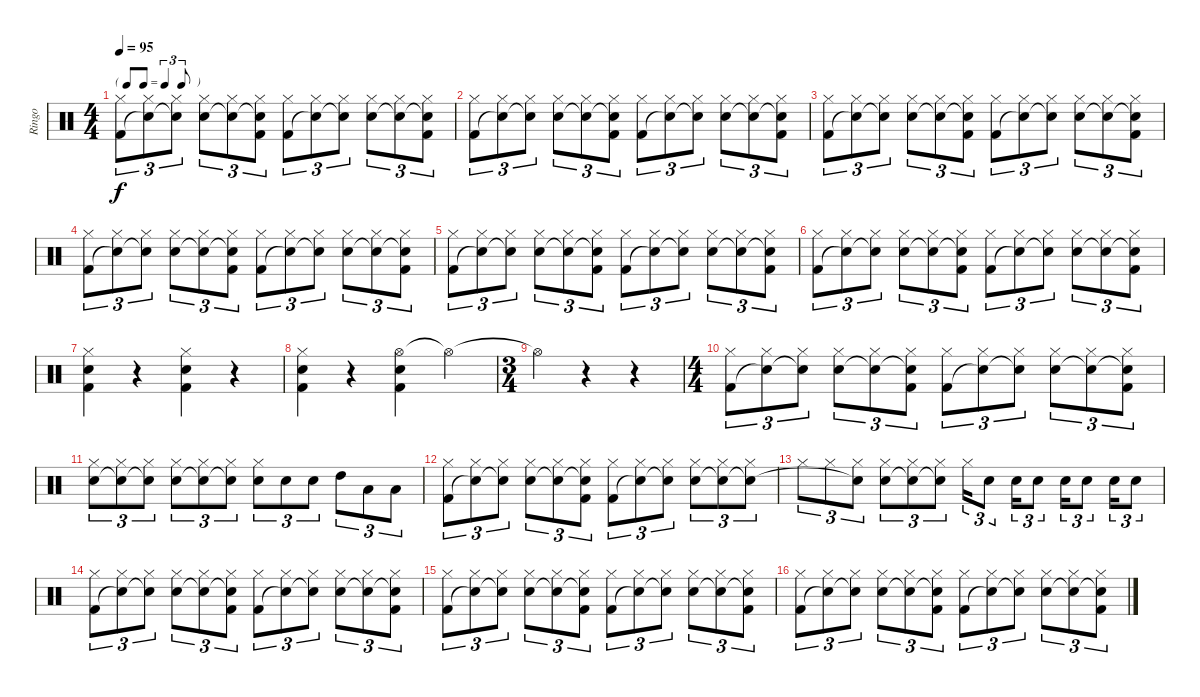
\track ("Ringo" "Ringo") {instrument percussion}
\staff {score}
\articulation defaults
\ts (4 4)
\tf triplet8th
\tempo 95
\clef neutral
\ks c
("Hi-Hat (closed)" "Kick (hit) 2").8{tu (3 2) dy f} ("Hi-Hat (closed)" "Snare (hit)"{t}).8{tu (3 2)} ("Hi-Hat (closed)" "Snare (hit)"{t}).8{tu (3 2)} ("Hi-Hat (closed)" "Snare (hit) 2").8{tu (3 2)} ("Hi-Hat (closed)" "Snare (hit)"{t}).8{tu (3 2)} ("Hi-Hat (closed)" "Snare (hit)"{t} "Kick (hit) 2").8{tu (3 2)} ("Hi-Hat (closed)" "Kick (hit) 2").8{tu (3 2)} ("Hi-Hat (closed)" "Snare (hit)"{t}).8{tu (3 2)} ("Hi-Hat (closed)" "Snare (hit)"{t}).8{tu (3 2)} ("Hi-Hat (closed)" "Snare (hit) 2").8{tu (3 2)} ("Hi-Hat (closed)" "Snare (hit)"{t}).8{tu (3 2)} ("Hi-Hat (closed)" "Snare (hit)"{t} "Kick (hit) 2").8{tu (3 2)} |
("Hi-Hat (closed)" "Kick (hit) 2").8{tu (3 2)} ("Hi-Hat (closed)" "Snare (hit)"{t}).8{tu (3 2)} ("Hi-Hat (closed)" "Snare (hit)"{t}).8{tu (3 2)} ("Hi-Hat (closed)" "Snare (hit) 2").8{tu (3 2)} ("Hi-Hat (closed)" "Snare (hit)"{t}).8{tu (3 2)} ("Hi-Hat (closed)" "Snare (hit)"{t} "Kick (hit) 2").8{tu (3 2)} ("Hi-Hat (closed)" "Kick (hit) 2").8{tu (3 2)} ("Hi-Hat (closed)" "Snare (hit)"{t}).8{tu (3 2)} ("Hi-Hat (closed)" "Snare (hit)"{t}).8{tu (3 2)} ("Hi-Hat (closed)" "Snare (hit) 2").8{tu (3 2)} ("Hi-Hat (closed)" "Snare (hit)"{t}).8{tu (3 2)} ("Hi-Hat (closed)" "Snare (hit)"{t} "Kick (hit) 2").8{tu (3 2)} |
("Hi-Hat (closed)" "Kick (hit) 2").8{tu (3 2)} ("Hi-Hat (closed)" "Snare (hit)"{t}).8{tu (3 2)} ("Hi-Hat (closed)" "Snare (hit)"{t}).8{tu (3 2)} ("Hi-Hat (closed)" "Snare (hit) 2").8{tu (3 2)} ("Hi-Hat (closed)" "Snare (hit)"{t}).8{tu (3 2)} ("Hi-Hat (closed)" "Snare (hit)"{t} "Kick (hit) 2").8{tu (3 2)} ("Hi-Hat (closed)" "Kick (hit) 2").8{tu (3 2)} ("Hi-Hat (closed)" "Snare (hit)"{t}).8{tu (3 2)} ("Hi-Hat (closed)" "Snare (hit)"{t}).8{tu (3 2)} ("Hi-Hat (closed)" "Snare (hit) 2").8{tu (3 2)} ("Hi-Hat (closed)" "Snare (hit)"{t}).8{tu (3 2)} ("Hi-Hat (closed)" "Snare (hit)"{t} "Kick (hit) 2").8{tu (3 2)} |
("Hi-Hat (closed)" "Kick (hit) 2").8{tu (3 2)} ("Hi-Hat (closed)" "Snare (hit)"{t}).8{tu (3 2)} ("Hi-Hat (closed)" "Snare (hit)"{t}).8{tu (3 2)} ("Hi-Hat (closed)" "Snare (hit) 2").8{tu (3 2)} ("Hi-Hat (closed)" "Snare (hit)"{t}).8{tu (3 2)} ("Hi-Hat (closed)" "Snare (hit)"{t} "Kick (hit) 2").8{tu (3 2)} ("Hi-Hat (closed)" "Kick (hit) 2").8{tu (3 2)} ("Hi-Hat (closed)" "Snare (hit)"{t}).8{tu (3 2)} ("Hi-Hat (closed)" "Snare (hit)"{t}).8{tu (3 2)} ("Hi-Hat (closed)" "Snare (hit) 2").8{tu (3 2)} ("Hi-Hat (closed)" "Snare (hit)"{t}).8{tu (3 2)} ("Hi-Hat (closed)" "Snare (hit)"{t} "Kick (hit) 2").8{tu (3 2)} |
("Hi-Hat (closed)" "Kick (hit) 2").8{tu (3 2)} ("Hi-Hat (closed)" "Snare (hit)"{t}).8{tu (3 2)} ("Hi-Hat (closed)" "Snare (hit)"{t}).8{tu (3 2)} ("Hi-Hat (closed)" "Snare (hit) 2").8{tu (3 2)} ("Hi-Hat (closed)" "Snare (hit)"{t}).8{tu (3 2)} ("Hi-Hat (closed)" "Snare (hit)"{t} "Kick (hit) 2").8{tu (3 2)} ("Hi-Hat (closed)" "Kick (hit) 2").8{tu (3 2)} ("Hi-Hat (closed)" "Snare (hit)"{t}).8{tu (3 2)} ("Hi-Hat (closed)" "Snare (hit)"{t}).8{tu (3 2)} ("Hi-Hat (closed)" "Snare (hit) 2").8{tu (3 2)} ("Hi-Hat (closed)" "Snare (hit)"{t}).8{tu (3 2)} ("Hi-Hat (closed)" "Snare (hit)"{t} "Kick (hit) 2").8{tu (3 2)} |
("Hi-Hat (closed)" "Kick (hit) 2").8{tu (3 2)} ("Hi-Hat (closed)" "Snare (hit)"{t}).8{tu (3 2)} ("Hi-Hat (closed)" "Snare (hit)"{t}).8{tu (3 2)} ("Hi-Hat (closed)" "Snare (hit) 2").8{tu (3 2)} ("Hi-Hat (closed)" "Snare (hit)"{t}).8{tu (3 2)} ("Hi-Hat (closed)" "Snare (hit)"{t} "Kick (hit) 2").8{tu (3 2)} ("Hi-Hat (closed)" "Kick (hit) 2").8{tu (3 2)} ("Hi-Hat (closed)" "Snare (hit)"{t}).8{tu (3 2)} ("Hi-Hat (closed)" "Snare (hit)"{t}).8{tu (3 2)} ("Hi-Hat (closed)" "Snare (hit) 2").8{tu (3 2)} ("Hi-Hat (closed)" "Snare (hit)"{t}).8{tu (3 2)} ("Hi-Hat (closed)" "Snare (hit)"{t} "Kick (hit) 2").8{tu (3 2)} |
("Hi-Hat (closed)" "Snare (hit) 2" "Kick (hit) 2").4 r.4 ("Hi-Hat (closed)" "Snare (hit) 2" "Kick (hit) 2").4 r.4 |
("Hi-Hat (closed)" "Snare (hit) 2" "Kick (hit) 2").4 r.4 ("Hi-Hat (open)" "Snare (hit) 2" "Kick (hit) 2").4 "Hi-Hat (open)"{t}.4 |
\ts (3 4)
"Hi-Hat (open)"{t}.4 r.4 r.4 |
\ts (4 4)
("Hi-Hat (closed)" "Kick (hit) 2").8{tu (3 2)} ("Hi-Hat (closed)" "Snare (hit)"{t}).8{tu (3 2)} ("Hi-Hat (closed)" "Snare (hit)"{t}).8{tu (3 2)} ("Hi-Hat (closed)" "Snare (hit) 2").8{tu (3 2)} ("Hi-Hat (closed)" "Snare (hit)"{t}).8{tu (3 2)} ("Hi-Hat (closed)" "Snare (hit)"{t} "Kick (hit) 2").8{tu (3 2)} ("Hi-Hat (closed)" "Kick (hit) 2").8{tu (3 2)} ("Hi-Hat (closed)" "Snare (hit)"{t}).8{tu (3 2)} ("Hi-Hat (closed)" "Snare (hit)"{t}).8{tu (3 2)} ("Hi-Hat (closed)" "Snare (hit) 2").8{tu (3 2)} ("Hi-Hat (closed)" "Snare (hit)"{t}).8{tu (3 2)} ("Hi-Hat (closed)" "Snare (hit)"{t} "Kick (hit) 2").8{tu (3 2)} |
("Hi-Hat (closed)" "Snare (hit) 2").8{tu (3 2)} ("Hi-Hat (closed)" "Snare (hit)"{t}).8{tu (3 2)} ("Hi-Hat (closed)" "Snare (hit)"{t}).8{tu (3 2)} ("Hi-Hat (closed)" "Snare (hit) 2").8{tu (3 2)} ("Hi-Hat (closed)" "Snare (hit)"{t}).8{tu (3 2)} ("Hi-Hat (closed)" "Snare (hit)"{t}).8{tu (3 2)} ("Hi-Hat (closed)" "Snare (hit) 2").8{tu (3 2)} "Snare (hit) 2".8{tu (3 2)} "Snare (hit) 2".8{tu (3 2)} "High Tom (hit)".8{tu (3 2)} "Low Floor Tom (hit)".8{tu (3 2)} "Low Floor Tom (hit)".8{tu (3 2)} |
("Hi-Hat (closed)" "Kick (hit) 2").8{tu (3 2)} ("Hi-Hat (closed)" "Snare (hit)"{t}).8{tu (3 2)} ("Hi-Hat (closed)" "Snare (hit)"{t}).8{tu (3 2)} ("Hi-Hat (closed)" "Snare (hit) 2").8{tu (3 2)} ("Hi-Hat (closed)" "Snare (hit)"{t}).8{tu (3 2)} ("Hi-Hat (closed)" "Snare (hit)"{t} "Kick (hit) 2").8{tu (3 2)} ("Hi-Hat (closed)" "Kick (hit) 2").8{tu (3 2)} ("Hi-Hat (closed)" "Snare (hit)"{t}).8{tu (3 2)} ("Hi-Hat (closed)" "Snare (hit)"{t}).8{tu (3 2)} ("Hi-Hat (closed)" "Snare (hit) 2").8{tu (3 2)} ("Hi-Hat (closed)" "Snare (hit)"{t}).8{tu (3 2)} ("Hi-Hat (closed)" "Snare (hit)"{t}).8{tu (3 2)} |
"Hi-Hat (closed)".8{tu (3 2)} "Hi-Hat (closed)".8{tu (3 2)} ("Hi-Hat (closed)" "Snare (hit)"{t}).8{tu (3 2)} ("Hi-Hat (closed)" "Snare (hit) 2").8{tu (3 2)} ("Hi-Hat (closed)" "Snare (hit)"{t}).8{tu (3 2)} ("Hi-Hat (closed)" "Snare (hit)"{t}).8{tu (3 2)} "Hi-Hat (closed)".16{tu (3 2)} "Snare (hit) 2".8{tu (3 2)} "Snare (hit) 2".16{tu (3 2)} "Snare (hit) 2".8{tu (3 2)} "Snare (hit) 2".16{tu (3 2)} "Snare (hit) 2".8{tu (3 2)} "Snare (hit) 2".16{tu (3 2)} "Snare (hit) 2".8{tu (3 2)} |
("Hi-Hat (closed)" "Kick (hit) 2").8{tu (3 2)} ("Hi-Hat (closed)" "Snare (hit)"{t}).8{tu (3 2)} ("Hi-Hat (closed)" "Snare (hit)"{t}).8{tu (3 2)} ("Hi-Hat (closed)" "Snare (hit) 2").8{tu (3 2)} ("Hi-Hat (closed)" "Snare (hit)"{t}).8{tu (3 2)} ("Hi-Hat (closed)" "Snare (hit)"{t} "Kick (hit) 2").8{tu (3 2)} ("Hi-Hat (closed)" "Kick (hit) 2").8{tu (3 2)} ("Hi-Hat (closed)" "Snare (hit)"{t}).8{tu (3 2)} ("Hi-Hat (closed)" "Snare (hit)"{t}).8{tu (3 2)} ("Hi-Hat (closed)" "Snare (hit) 2").8{tu (3 2)} ("Hi-Hat (closed)" "Snare (hit)"{t}).8{tu (3 2)} ("Hi-Hat (closed)" "Snare (hit)"{t} "Kick (hit) 2").8{tu (3 2)} |
("Hi-Hat (closed)" "Kick (hit) 2").8{tu (3 2)} ("Hi-Hat (closed)" "Snare (hit)"{t}).8{tu (3 2)} ("Hi-Hat (closed)" "Snare (hit)"{t}).8{tu (3 2)} ("Hi-Hat (closed)" "Snare (hit) 2").8{tu (3 2)} ("Hi-Hat (closed)" "Snare (hit)"{t}).8{tu (3 2)} ("Hi-Hat (closed)" "Snare (hit)"{t} "Kick (hit) 2").8{tu (3 2)} ("Hi-Hat (closed)" "Kick (hit) 2").8{tu (3 2)} ("Hi-Hat (closed)" "Snare (hit)"{t}).8{tu (3 2)} ("Hi-Hat (closed)" "Snare (hit)"{t}).8{tu (3 2)} ("Hi-Hat (closed)" "Snare (hit) 2").8{tu (3 2)} ("Hi-Hat (closed)" "Snare (hit)"{t}).8{tu (3 2)} ("Hi-Hat (closed)" "Snare (hit)"{t} "Kick (hit) 2").8{tu (3 2)} |
("Hi-Hat (closed)" "Kick (hit) 2").8{tu (3 2)} ("Hi-Hat (closed)" "Snare (hit)"{t}).8{tu (3 2)} ("Hi-Hat (closed)" "Snare (hit)"{t}).8{tu (3 2)} ("Hi-Hat (closed)" "Snare (hit) 2").8{tu (3 2)} ("Hi-Hat (closed)" "Snare (hit)"{t}).8{tu (3 2)} ("Hi-Hat (closed)" "Snare (hit)"{t} "Kick (hit) 2").8{tu (3 2)} ("Hi-Hat (closed)" "Kick (hit) 2").8{tu (3 2)} ("Hi-Hat (closed)" "Snare (hit)"{t}).8{tu (3 2)} ("Hi-Hat (closed)" "Snare (hit)"{t}).8{tu (3 2)} ("Hi-Hat (closed)" "Snare (hit) 2").8{tu (3 2)} ("Hi-Hat (closed)" "Snare (hit)"{t}).8{tu (3 2)} ("Hi-Hat (closed)" "Snare (hit)"{t} "Kick (hit) 2").8{tu (3 2)}
